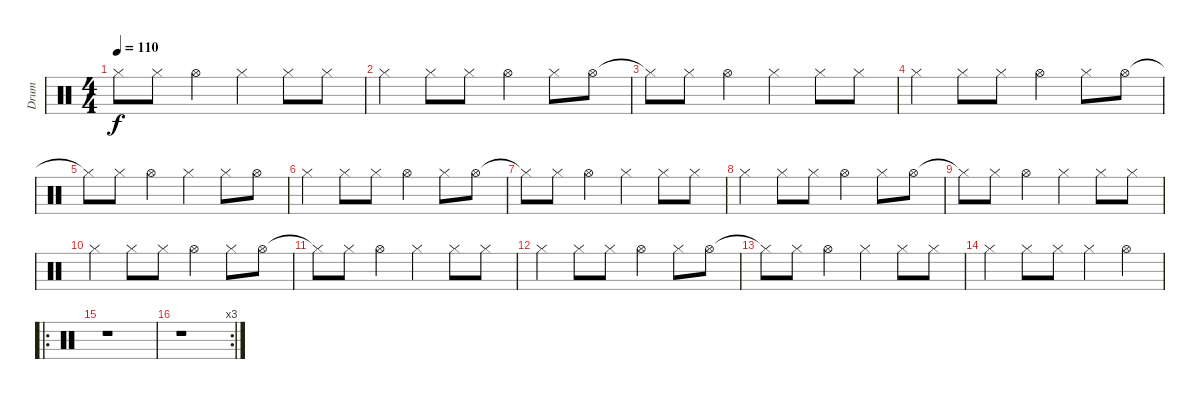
\track ("Drum" "Drum") {instrument percussion}
\staff {score}
\articulation defaults
\ts (4 4)
\tempo 110
\clef neutral
\ks c "Hi-Hat (closed)"{t}.8{dy f} "Hi-Hat (closed)".8 "Hi-Hat (open)".4 "Hi-Hat (closed)".4 "Hi-Hat (closed)".8 "Hi-Hat (closed)".8
|
"Hi-Hat (closed)".4 "Hi-Hat (closed)".8 "Hi-Hat (closed)".8 "Hi-Hat (open)".4 "Hi-Hat (closed)".8 "Hi-Hat (open)".8 |
"Hi-Hat (closed)"{t}.8 "Hi-Hat (closed)".8 "Hi-Hat (open)".4 "Hi-Hat (closed)".4 "Hi-Hat (closed)".8 "Hi-Hat (closed)".8 |
"Hi-Hat (closed)".4 "Hi-Hat (closed)".8 "Hi-Hat (closed)".8 "Hi-Hat (open)".4 "Hi-Hat (closed)".8 "Hi-Hat (open)".8 |
"Hi-Hat (closed)"{t}.8 "Hi-Hat (closed)".8 "Hi-Hat (open)".4 "Hi-Hat (closed)".4 "Hi-Hat (closed)".8 "Hi-Hat (open)".8 |
"Hi-Hat (closed)".4 "Hi-Hat (closed)".8 "Hi-Hat (closed)".8 "Hi-Hat (open)".4 "Hi-Hat (closed)".8 "Hi-Hat (open)".8 |
"Hi-Hat (closed)"{t}.8 "Hi-Hat (closed)".8 "Hi-Hat (open)".4 "Hi-Hat (closed)".4 "Hi-Hat (closed)".8 "Hi-Hat (closed)".8 |
"Hi-Hat (closed)".4 "Hi-Hat (closed)".8 "Hi-Hat (closed)".8 "Hi-Hat (open)".4 "Hi-Hat (closed)".8 "Hi-Hat (open)".8 |
"Hi-Hat (closed)"{t}.8 "Hi-Hat (closed)".8 "Hi-Hat (open)".4 "Hi-Hat (closed)".4 "Hi-Hat (closed)".8 "Hi-Hat (closed)".8 |
"Hi-Hat (closed)".4 "Hi-Hat (closed)".8 "Hi-Hat (closed)".8 "Hi-Hat (open)".4 "Hi-Hat (closed)".8 "Hi-Hat (open)".8 |
"Hi-Hat (closed)"{t}.8 "Hi-Hat (closed)".8 "Hi-Hat (open)".4 "Hi-Hat (closed)".4 "Hi-Hat (closed)".8 "Hi-Hat (closed)".8 |
"Hi-Hat (closed)".4 "Hi-Hat (closed)".8 "Hi-Hat (closed)".8 "Hi-Hat (open)".4 "Hi-Hat (closed)".8 "Hi-Hat (open)".8 |
"Hi-Hat (closed)"{t}.8 "Hi-Hat (closed)".8 "Hi-Hat (open)".4 "Hi-Hat (closed)".4 "Hi-Hat (closed)".8 "Hi-Hat (closed)".8 |
"Hi-Hat (closed)".4 "Hi-Hat (closed)".8 "Hi-Hat (closed)".8 "Hi-Hat (closed)".4 "Hi-Hat (open)".4 |
\ro
r.1 |
\rc 3
r.1
